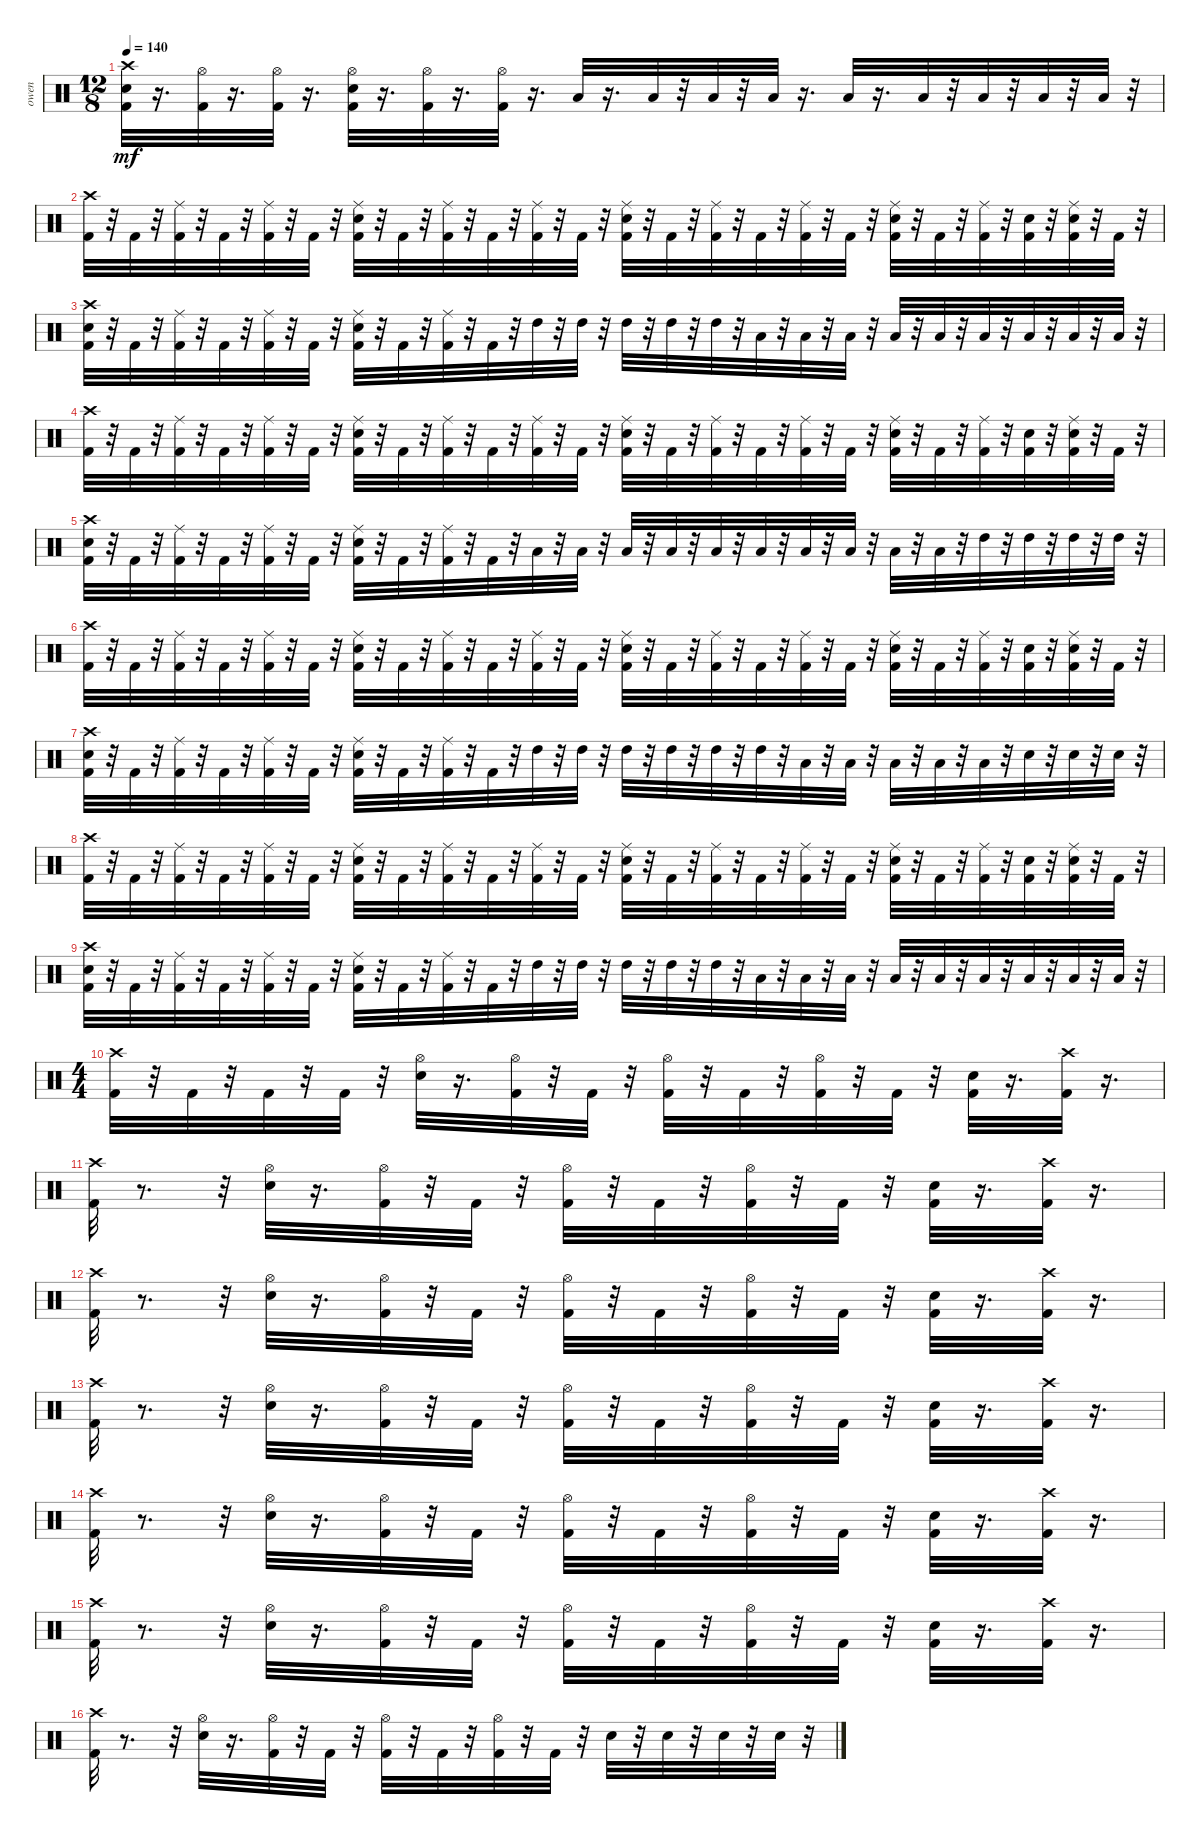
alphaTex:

\track ("owen" "owen") {instrument percussion}
\staff {score}
\articulation defaults
\ts (12 8)
\tempo 140
\clef neutral
\ks c
("Kick (hit) 2" "Snare (hit) 2" "Crash high (hit)").32{dy mf} r.16{d} ("Kick (hit) 2" "Hi-Hat (open)").32 r.16{d} ("Kick (hit) 2" "Hi-Hat (open)").32 r.16{d} ("Kick (hit) 2" "Snare (hit) 2" "Hi-Hat (open)").32 r.16{d} ("Kick (hit) 2" "Hi-Hat (open)").32 r.16{d} ("Kick (hit) 2" "Hi-Hat (open)").32 r.16{d} "Low Tom (hit)".32 r.16{d} "Low Tom (hit)".32 r.32 "Low Tom (hit)".32 r.32 "Low Tom (hit)".32 r.16{d} "Low Floor Tom (hit)".32 r.16{d} "Low Floor Tom (hit)".32 r.32 "Low Floor Tom (hit)".32 r.32 "Low Floor Tom (hit)".32 r.32 "Low Floor Tom (hit)".32 r.32 |
("Kick (hit) 2" "Crash high (hit)").32 r.32 "Kick (hit) 2".32 r.32 ("Kick (hit) 2" "Ride (middle)").32 r.32 "Kick (hit) 2".32 r.32 ("Kick (hit) 2" "Ride (middle)").32 r.32 "Kick (hit) 2".32 r.32 ("Kick (hit) 2" "Ride (middle)" "Snare (hit) 2").32 r.32 "Kick (hit) 2".32 r.32 ("Kick (hit) 2" "Ride (middle)").32 r.32 "Kick (hit) 2".32 r.32 ("Kick (hit) 2" "Ride (middle)").32 r.32 "Kick (hit) 2".32 r.32 ("Kick (hit) 2" "Ride (middle)" "Snare (hit) 2").32 r.32 "Kick (hit) 2".32 r.32 ("Kick (hit) 2" "Ride (middle)").32 r.32 "Kick (hit) 2".32 r.32 ("Kick (hit) 2" "Ride (middle)").32 r.32 "Kick (hit) 2".32 r.32 ("Kick (hit) 2" "Ride (middle)" "Snare (hit) 2").32 r.32 "Kick (hit) 2".32 r.32 ("Kick (hit) 2" "Ride (middle)").32 r.32 ("Kick (hit) 2" "Snare (hit) 2").32 r.32 ("Kick (hit) 2" "Ride (middle)" "Snare (hit) 2").32 r.32 "Kick (hit) 2".32 r.32 |
("Kick (hit) 2" "Snare (hit) 2" "Crash high (hit)").32 r.32 "Kick (hit) 2".32 r.32 ("Kick (hit) 2" "Ride (middle)").32 r.32 "Kick (hit) 2".32 r.32 ("Kick (hit) 2" "Ride (middle)").32 r.32 "Kick (hit) 2".32 r.32 ("Kick (hit) 2" "Ride (middle)" "Snare (hit) 2").32 r.32 "Kick (hit) 2".32 r.32 ("Kick (hit) 2" "Ride (middle)").32 r.32 "Kick (hit) 2".32 r.32 "High Tom (hit)".32 r.32 "High Tom (hit)".32 r.32 "High Tom (hit)".32 r.32 "High Tom (hit)".32 r.32 "High Tom (hit)".32 r.32 "Low Tom (hit)".32 r.32 "Low Tom (hit)".32 r.32 "Low Tom (hit)".32 r.32 "Low Tom (hit)".32 r.32 "Low Tom (hit)".32 r.32 "Low Tom (hit)".32 r.32 "Low Floor Tom (hit)".32 r.32 "Low Floor Tom (hit)".32 r.32 "Low Floor Tom (hit)".32 r.32 |
("Kick (hit) 2" "Crash high (hit)").32 r.32 "Kick (hit) 2".32 r.32 ("Kick (hit) 2" "Ride (middle)").32 r.32 "Kick (hit) 2".32 r.32 ("Kick (hit) 2" "Ride (middle)").32 r.32 "Kick (hit) 2".32 r.32 ("Kick (hit) 2" "Ride (middle)" "Snare (hit) 2").32 r.32 "Kick (hit) 2".32 r.32 ("Kick (hit) 2" "Ride (middle)").32 r.32 "Kick (hit) 2".32 r.32 ("Kick (hit) 2" "Ride (middle)").32 r.32 "Kick (hit) 2".32 r.32 ("Kick (hit) 2" "Ride (middle)" "Snare (hit) 2").32 r.32 "Kick (hit) 2".32 r.32 ("Kick (hit) 2" "Ride (middle)").32 r.32 "Kick (hit) 2".32 r.32 ("Kick (hit) 2" "Ride (middle)").32 r.32 "Kick (hit) 2".32 r.32 ("Kick (hit) 2" "Ride (middle)" "Snare (hit) 2").32 r.32 "Kick (hit) 2".32 r.32 ("Kick (hit) 2" "Ride (middle)").32 r.32 ("Kick (hit) 2" "Snare (hit) 2").32 r.32 ("Kick (hit) 2" "Ride (middle)" "Snare (hit) 2").32 r.32 "Kick (hit) 2".32 r.32 |
("Kick (hit) 2" "Snare (hit) 2" "Crash high (hit)").32 r.32 "Kick (hit) 2".32 r.32 ("Kick (hit) 2" "Ride (middle)").32 r.32 "Kick (hit) 2".32 r.32 ("Kick (hit) 2" "Ride (middle)").32 r.32 "Kick (hit) 2".32 r.32 ("Kick (hit) 2" "Ride (middle)" "Snare (hit) 2").32 r.32 "Kick (hit) 2".32 r.32 ("Kick (hit) 2" "Ride (middle)").32 r.32 "Kick (hit) 2".32 r.32 "Low Floor Tom (hit)".32 r.32 "Low Floor Tom (hit)".32 r.32 "Low Floor Tom (hit)".32 r.32 "Low Floor Tom (hit)".32 r.32 "Low Floor Tom (hit)".32 r.32 "Low Tom (hit)".32 r.32 "Low Tom (hit)".32 r.32 "Low Tom (hit)".32 r.32 "Low Tom (hit)".32 r.32 "Low Tom (hit)".32 r.32 "High Tom (hit)".32 r.32 "High Tom (hit)".32 r.32 "High Tom (hit)".32 r.32 "High Tom (hit)".32 r.32 |
("Kick (hit) 2" "Crash high (hit)").32 r.32 "Kick (hit) 2".32 r.32 ("Kick (hit) 2" "Ride (middle)").32 r.32 "Kick (hit) 2".32 r.32 ("Kick (hit) 2" "Ride (middle)").32 r.32 "Kick (hit) 2".32 r.32 ("Kick (hit) 2" "Ride (middle)" "Snare (hit) 2").32 r.32 "Kick (hit) 2".32 r.32 ("Kick (hit) 2" "Ride (middle)").32 r.32 "Kick (hit) 2".32 r.32 ("Kick (hit) 2" "Ride (middle)").32 r.32 "Kick (hit) 2".32 r.32 ("Kick (hit) 2" "Ride (middle)" "Snare (hit) 2").32 r.32 "Kick (hit) 2".32 r.32 ("Kick (hit) 2" "Ride (middle)").32 r.32 "Kick (hit) 2".32 r.32 ("Kick (hit) 2" "Ride (middle)").32 r.32 "Kick (hit) 2".32 r.32 ("Kick (hit) 2" "Ride (middle)" "Snare (hit) 2").32 r.32 "Kick (hit) 2".32 r.32 ("Kick (hit) 2" "Ride (middle)").32 r.32 ("Kick (hit) 2" "Snare (hit) 2").32 r.32 ("Kick (hit) 2" "Ride (middle)" "Snare (hit) 2").32 r.32 "Kick (hit) 2".32 r.32 |
("Kick (hit) 2" "Snare (hit) 2" "Crash high (hit)").32 r.32 "Kick (hit) 2".32 r.32 ("Kick (hit) 2" "Ride (middle)").32 r.32 "Kick (hit) 2".32 r.32 ("Kick (hit) 2" "Ride (middle)").32 r.32 "Kick (hit) 2".32 r.32 ("Kick (hit) 2" "Ride (middle)" "Snare (hit) 2").32 r.32 "Kick (hit) 2".32 r.32 ("Kick (hit) 2" "Ride (middle)").32 r.32 "Kick (hit) 2".32 r.32 "High Tom (hit)".32 r.32 "High Tom (hit)".32 r.32 "High Tom (hit)".32 r.32 "High Tom (hit)".32 r.32 "High Tom (hit)".32 r.32 "High Tom (hit)".32 r.32 "Low Floor Tom (hit)".32 r.32 "Low Floor Tom (hit)".32 r.32 "Low Floor Tom (hit)".32 r.32 "Low Floor Tom (hit)".32 r.32 "Low Floor Tom (hit)".32 r.32 "Snare (hit) 2".32 r.32 "Snare (hit) 2".32 r.32 "Snare (hit) 2".32 r.32 |
("Kick (hit) 2" "Crash high (hit)").32 r.32 "Kick (hit) 2".32 r.32 ("Kick (hit) 2" "Ride (middle)").32 r.32 "Kick (hit) 2".32 r.32 ("Kick (hit) 2" "Ride (middle)").32 r.32 "Kick (hit) 2".32 r.32 ("Kick (hit) 2" "Ride (middle)" "Snare (hit) 2").32 r.32 "Kick (hit) 2".32 r.32 ("Kick (hit) 2" "Ride (middle)").32 r.32 "Kick (hit) 2".32 r.32 ("Kick (hit) 2" "Ride (middle)").32 r.32 "Kick (hit) 2".32 r.32 ("Kick (hit) 2" "Ride (middle)" "Snare (hit) 2").32 r.32 "Kick (hit) 2".32 r.32 ("Kick (hit) 2" "Ride (middle)").32 r.32 "Kick (hit) 2".32 r.32 ("Kick (hit) 2" "Ride (middle)").32 r.32 "Kick (hit) 2".32 r.32 ("Kick (hit) 2" "Ride (middle)" "Snare (hit) 2").32 r.32 "Kick (hit) 2".32 r.32 ("Kick (hit) 2" "Ride (middle)").32 r.32 ("Kick (hit) 2" "Snare (hit) 2").32 r.32 ("Kick (hit) 2" "Ride (middle)" "Snare (hit) 2").32 r.32 "Kick (hit) 2".32 r.32 |
("Kick (hit) 2" "Snare (hit) 2" "Crash high (hit)").32 r.32 "Kick (hit) 2".32 r.32 ("Kick (hit) 2" "Ride (middle)").32 r.32 "Kick (hit) 2".32 r.32 ("Kick (hit) 2" "Ride (middle)").32 r.32 "Kick (hit) 2".32 r.32 ("Kick (hit) 2" "Ride (middle)" "Snare (hit) 2").32 r.32 "Kick (hit) 2".32 r.32 ("Kick (hit) 2" "Ride (middle)").32 r.32 "Kick (hit) 2".32 r.32 "High Tom (hit)".32 r.32 "High Tom (hit)".32 r.32 "High Tom (hit)".32 r.32 "High Tom (hit)".32 r.32 "High Tom (hit)".32 r.32 "Low Tom (hit)".32 r.32 "Low Tom (hit)".32 r.32 "Low Tom (hit)".32 r.32 "Low Tom (hit)".32 r.32 "Low Tom (hit)".32 r.32 "Low Tom (hit)".32 r.32 "Low Floor Tom (hit)".32 r.32 "Low Floor Tom (hit)".32 r.32 "Low Floor Tom (hit)".32 r.32 |
\ts (4 4)
("Kick (hit) 2" "Crash high (hit)").32 r.32 "Kick (hit) 2".32 r.32 "Kick (hit) 2".32 r.32 "Kick (hit) 2".32 r.32 ("Snare (hit) 2" "Hi-Hat (open)").32 r.16{d} ("Kick (hit) 2" "Hi-Hat (open)").32 r.32 "Kick (hit) 2".32 r.32 ("Kick (hit) 2" "Hi-Hat (open)").32 r.32 "Kick (hit) 2".32 r.32 ("Kick (hit) 2" "Hi-Hat (open)").32 r.32 "Kick (hit) 2".32 r.32 ("Kick (hit) 2" "Snare (hit) 2").32 r.16{d} ("Kick (hit) 2" "Crash high (hit)").32 r.16{d} |
("Kick (hit) 2" "Crash high (hit)").32 r.8{d} r.32 ("Snare (hit) 2" "Hi-Hat (open)").32 r.16{d} ("Kick (hit) 2" "Hi-Hat (open)").32 r.32 "Kick (hit) 2".32 r.32 ("Kick (hit) 2" "Hi-Hat (open)").32 r.32 "Kick (hit) 2".32 r.32 ("Kick (hit) 2" "Hi-Hat (open)").32 r.32 "Kick (hit) 2".32 r.32 ("Kick (hit) 2" "Snare (hit) 2").32 r.16{d} ("Kick (hit) 2" "Crash high (hit)").32 r.16{d} |
("Kick (hit) 2" "Crash high (hit)").32 r.8{d} r.32 ("Snare (hit) 2" "Hi-Hat (open)").32 r.16{d} ("Kick (hit) 2" "Hi-Hat (open)").32 r.32 "Kick (hit) 2".32 r.32 ("Kick (hit) 2" "Hi-Hat (open)").32 r.32 "Kick (hit) 2".32 r.32 ("Kick (hit) 2" "Hi-Hat (open)").32 r.32 "Kick (hit) 2".32 r.32 ("Kick (hit) 2" "Snare (hit) 2").32 r.16{d} ("Kick (hit) 2" "Crash high (hit)").32 r.16{d} |
("Kick (hit) 2" "Crash high (hit)").32 r.8{d} r.32 ("Snare (hit) 2" "Hi-Hat (open)").32 r.16{d} ("Kick (hit) 2" "Hi-Hat (open)").32 r.32 "Kick (hit) 2".32 r.32 ("Kick (hit) 2" "Hi-Hat (open)").32 r.32 "Kick (hit) 2".32 r.32 ("Kick (hit) 2" "Hi-Hat (open)").32 r.32 "Kick (hit) 2".32 r.32 ("Kick (hit) 2" "Snare (hit) 2").32 r.16{d} ("Kick (hit) 2" "Crash high (hit)").32 r.16{d} |
("Kick (hit) 2" "Crash high (hit)").32 r.8{d} r.32 ("Snare (hit) 2" "Hi-Hat (open)").32 r.16{d} ("Kick (hit) 2" "Hi-Hat (open)").32 r.32 "Kick (hit) 2".32 r.32 ("Kick (hit) 2" "Hi-Hat (open)").32 r.32 "Kick (hit) 2".32 r.32 ("Kick (hit) 2" "Hi-Hat (open)").32 r.32 "Kick (hit) 2".32 r.32 ("Kick (hit) 2" "Snare (hit) 2").32 r.16{d} ("Kick (hit) 2" "Crash high (hit)").32 r.16{d} |
("Kick (hit) 2" "Crash high (hit)").32 r.8{d} r.32 ("Snare (hit) 2" "Hi-Hat (open)").32 r.16{d} ("Kick (hit) 2" "Hi-Hat (open)").32 r.32 "Kick (hit) 2".32 r.32 ("Kick (hit) 2" "Hi-Hat (open)").32 r.32 "Kick (hit) 2".32 r.32 ("Kick (hit) 2" "Hi-Hat (open)").32 r.32 "Kick (hit) 2".32 r.32 ("Kick (hit) 2" "Snare (hit) 2").32 r.16{d} ("Kick (hit) 2" "Crash high (hit)").32 r.16{d} |
("Kick (hit) 2" "Crash high (hit)").32 r.8{d} r.32 ("Snare (hit) 2" "Hi-Hat (open)").32 r.16{d} ("Kick (hit) 2" "Hi-Hat (open)").32 r.32 "Kick (hit) 2".32 r.32 ("Kick (hit) 2" "Hi-Hat (open)").32 r.32 "Kick (hit) 2".32 r.32 ("Kick (hit) 2" "Hi-Hat (open)").32 r.32 "Kick (hit) 2".32 r.32 "Snare (hit) 2".32 r.32 "Snare (hit) 2".32 r.32 "Snare (hit) 2".32 r.32 "Snare (hit) 2".32 r.32
